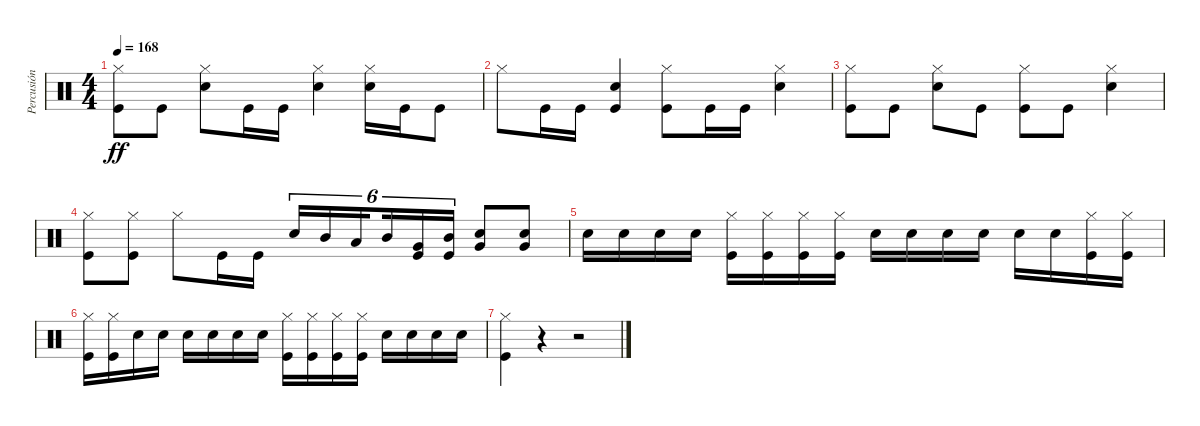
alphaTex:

\track ("Percusión" "Percusión") {instrument percussion}
\staff {score}
\articulation defaults
\ts (4 4)
\tempo 168
\clef neutral
\ks c
("Hi-Hat (closed)" "Kick (hit)").8{dy ff} "Kick (hit)".8 ("Hi-Hat (closed)" "Snare (hit) 2").8 "Kick (hit)".16 "Kick (hit)".16 ("Hi-Hat (closed)" "Snare (hit) 2").4 ("Hi-Hat (closed)" "Snare (hit) 2").16 "Kick (hit)".16 "Kick (hit)".8 |
"Hi-Hat (closed)".8 "Kick (hit)".16 "Kick (hit)".16 ("Snare (hit) 2" "Kick (hit)").4 ("Hi-Hat (closed)" "Kick (hit)").8 "Kick (hit)".16 "Kick (hit)".16 ("Hi-Hat (closed)" "Snare (hit) 2").4 |
("Hi-Hat (closed)" "Kick (hit)").8 "Kick (hit)".8 ("Hi-Hat (closed)" "Snare (hit) 2").8 "Kick (hit)".8 ("Hi-Hat (closed)" "Kick (hit)").8 "Kick (hit)".8 ("Hi-Hat (closed)" "Snare (hit) 2").4 |
("Hi-Hat (closed)" "Kick (hit)").8 ("Hi-Hat (closed)" "Kick (hit)").8 "Hi-Hat (closed)".8 "Kick (hit)".16 "Kick (hit)".16 "Snare (hit) 2".16{tu (6 4)} "Mid Tom (hit)".16{tu (6 4)} "Low Tom (hit)".16{tu (6 4) beam splitsecondary} "Mid Tom (hit)".16{tu (6 4)} ("Very Low Tom (hit)" "Kick (hit)").16{tu (6 4)} ("Mid Tom (hit)" "Kick (hit)").16{tu (6 4)} ("Snare (hit) 2" "Very Low Tom (hit)").8 ("Snare (hit) 2" "Very Low Tom (hit)").8 |
"Snare (hit) 2".16 "Snare (hit) 2".16 "Snare (hit) 2".16 "Snare (hit) 2".16 ("Hi-Hat (closed)" "Kick (hit)").16 ("Hi-Hat (closed)" "Kick (hit)").16 ("Hi-Hat (closed)" "Kick (hit)").16 ("Hi-Hat (closed)" "Kick (hit)").16 "Snare (hit) 2".16 "Snare (hit) 2".16 "Snare (hit) 2".16 "Snare (hit) 2".16 "Snare (hit) 2".16 "Snare (hit) 2".16 ("Hi-Hat (closed)" "Kick (hit)").16 ("Hi-Hat (closed)" "Kick (hit)").16 |
("Hi-Hat (closed)" "Kick (hit)").16 ("Hi-Hat (closed)" "Kick (hit)").16 "Snare (hit) 2".16 "Snare (hit) 2".16 "Snare (hit) 2".16 "Snare (hit) 2".16 "Snare (hit) 2".16 "Snare (hit) 2".16 ("Hi-Hat (closed)" "Kick (hit)").16 ("Hi-Hat (closed)" "Kick (hit)").16 ("Hi-Hat (closed)" "Kick (hit)").16 ("Hi-Hat (closed)" "Kick (hit)").16 "Snare (hit) 2".16 "Snare (hit) 2".16 "Snare (hit) 2".16 "Snare (hit) 2".16 |
("Hi-Hat (closed)" "Kick (hit)").4 r.4 r.2
